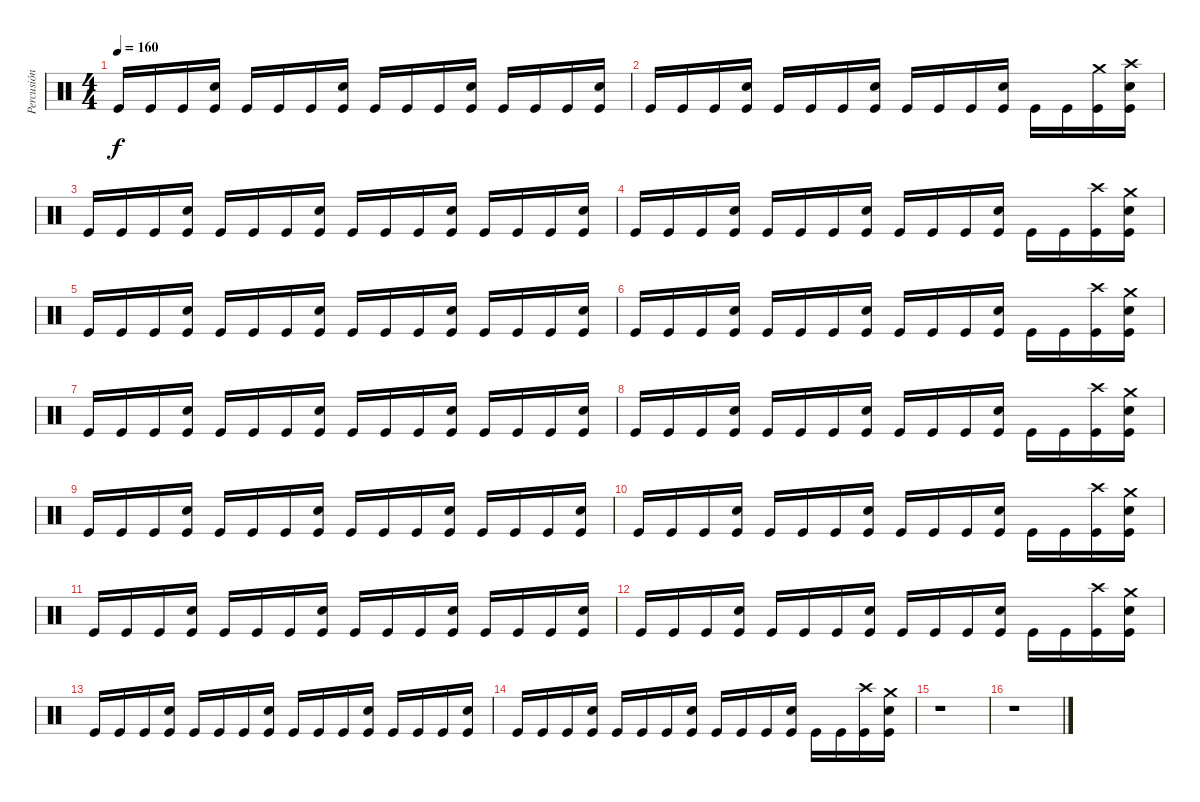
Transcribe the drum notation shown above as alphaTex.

\track ("Percusión" "Percusión") {instrument percussion}
\staff {score}
\articulation defaults
\ts (4 4)
\tempo 160
\clef neutral
\ks c "Kick (hit)".16{dy f} "Kick (hit)".16 "Kick (hit)".16
("Electric Snare (hit)" "Kick (hit)").16 "Kick (hit)".16 "Kick (hit)".16 "Kick (hit)".16 ("Electric Snare (hit)" "Kick (hit)").16 "Kick (hit)".16 "Kick (hit)".16 "Kick (hit)".16 ("Electric Snare (hit)" "Kick (hit)").16 "Kick (hit)".16 "Kick (hit)".16 "Kick (hit)".16 ("Electric Snare (hit)" "Kick (hit)").16 |
"Kick (hit)".16 "Kick (hit)".16 "Kick (hit)".16 ("Electric Snare (hit)" "Kick (hit)").16 "Kick (hit)".16 "Kick (hit)".16 "Kick (hit)".16 ("Electric Snare (hit)" "Kick (hit)").16 "Kick (hit)".16 "Kick (hit)".16 "Kick (hit)".16 ("Electric Snare (hit)" "Kick (hit)").16 "Kick (hit)".16 "Kick (hit)".16 ("Crash medium (hit)" "Kick (hit)").16 ("Crash high (hit)" "Electric Snare (hit)" "Kick (hit)").16 |
"Kick (hit)".16 "Kick (hit)".16 "Kick (hit)".16 ("Electric Snare (hit)" "Kick (hit)").16 "Kick (hit)".16 "Kick (hit)".16 "Kick (hit)".16 ("Electric Snare (hit)" "Kick (hit)").16 "Kick (hit)".16 "Kick (hit)".16 "Kick (hit)".16 ("Electric Snare (hit)" "Kick (hit)").16 "Kick (hit)".16 "Kick (hit)".16 "Kick (hit)".16 ("Electric Snare (hit)" "Kick (hit)").16 |
"Kick (hit)".16 "Kick (hit)".16 "Kick (hit)".16 ("Electric Snare (hit)" "Kick (hit)").16 "Kick (hit)".16 "Kick (hit)".16 "Kick (hit)".16 ("Electric Snare (hit)" "Kick (hit)").16 "Kick (hit)".16 "Kick (hit)".16 "Kick (hit)".16 ("Electric Snare (hit)" "Kick (hit)").16 "Kick (hit)".16 "Kick (hit)".16 ("Crash high (hit)" "Kick (hit)").16 ("Crash medium (hit)" "Electric Snare (hit)" "Kick (hit)").16 |
"Kick (hit)".16 "Kick (hit)".16 "Kick (hit)".16 ("Electric Snare (hit)" "Kick (hit)").16 "Kick (hit)".16 "Kick (hit)".16 "Kick (hit)".16 ("Electric Snare (hit)" "Kick (hit)").16 "Kick (hit)".16 "Kick (hit)".16 "Kick (hit)".16 ("Electric Snare (hit)" "Kick (hit)").16 "Kick (hit)".16 "Kick (hit)".16 "Kick (hit)".16 ("Electric Snare (hit)" "Kick (hit)").16 |
"Kick (hit)".16 "Kick (hit)".16 "Kick (hit)".16 ("Electric Snare (hit)" "Kick (hit)").16 "Kick (hit)".16 "Kick (hit)".16 "Kick (hit)".16 ("Electric Snare (hit)" "Kick (hit)").16 "Kick (hit)".16 "Kick (hit)".16 "Kick (hit)".16 ("Electric Snare (hit)" "Kick (hit)").16 "Kick (hit)".16 "Kick (hit)".16 ("Crash high (hit)" "Kick (hit)").16 ("Crash medium (hit)" "Electric Snare (hit)" "Kick (hit)").16 |
"Kick (hit)".16 "Kick (hit)".16 "Kick (hit)".16 ("Electric Snare (hit)" "Kick (hit)").16 "Kick (hit)".16 "Kick (hit)".16 "Kick (hit)".16 ("Electric Snare (hit)" "Kick (hit)").16 "Kick (hit)".16 "Kick (hit)".16 "Kick (hit)".16 ("Electric Snare (hit)" "Kick (hit)").16 "Kick (hit)".16 "Kick (hit)".16 "Kick (hit)".16 ("Electric Snare (hit)" "Kick (hit)").16 |
"Kick (hit)".16 "Kick (hit)".16 "Kick (hit)".16 ("Electric Snare (hit)" "Kick (hit)").16 "Kick (hit)".16 "Kick (hit)".16 "Kick (hit)".16 ("Electric Snare (hit)" "Kick (hit)").16 "Kick (hit)".16 "Kick (hit)".16 "Kick (hit)".16 ("Electric Snare (hit)" "Kick (hit)").16 "Kick (hit)".16 "Kick (hit)".16 ("Crash high (hit)" "Kick (hit)").16 ("Crash medium (hit)" "Electric Snare (hit)" "Kick (hit)").16 |
"Kick (hit)".16 "Kick (hit)".16 "Kick (hit)".16 ("Electric Snare (hit)" "Kick (hit)").16 "Kick (hit)".16 "Kick (hit)".16 "Kick (hit)".16 ("Electric Snare (hit)" "Kick (hit)").16 "Kick (hit)".16 "Kick (hit)".16 "Kick (hit)".16 ("Electric Snare (hit)" "Kick (hit)").16 "Kick (hit)".16 "Kick (hit)".16 "Kick (hit)".16 ("Electric Snare (hit)" "Kick (hit)").16 |
"Kick (hit)".16 "Kick (hit)".16 "Kick (hit)".16 ("Electric Snare (hit)" "Kick (hit)").16 "Kick (hit)".16 "Kick (hit)".16 "Kick (hit)".16 ("Electric Snare (hit)" "Kick (hit)").16 "Kick (hit)".16 "Kick (hit)".16 "Kick (hit)".16 ("Electric Snare (hit)" "Kick (hit)").16 "Kick (hit)".16 "Kick (hit)".16 ("Crash high (hit)" "Kick (hit)").16 ("Crash medium (hit)" "Electric Snare (hit)" "Kick (hit)").16 |
"Kick (hit)".16 "Kick (hit)".16 "Kick (hit)".16 ("Electric Snare (hit)" "Kick (hit)").16 "Kick (hit)".16 "Kick (hit)".16 "Kick (hit)".16 ("Electric Snare (hit)" "Kick (hit)").16 "Kick (hit)".16 "Kick (hit)".16 "Kick (hit)".16 ("Electric Snare (hit)" "Kick (hit)").16 "Kick (hit)".16 "Kick (hit)".16 "Kick (hit)".16 ("Electric Snare (hit)" "Kick (hit)").16 |
"Kick (hit)".16 "Kick (hit)".16 "Kick (hit)".16 ("Electric Snare (hit)" "Kick (hit)").16 "Kick (hit)".16 "Kick (hit)".16 "Kick (hit)".16 ("Electric Snare (hit)" "Kick (hit)").16 "Kick (hit)".16 "Kick (hit)".16 "Kick (hit)".16 ("Electric Snare (hit)" "Kick (hit)").16 "Kick (hit)".16 "Kick (hit)".16 ("Crash high (hit)" "Kick (hit)").16 ("Crash medium (hit)" "Electric Snare (hit)" "Kick (hit)").16 |
"Kick (hit)".16 "Kick (hit)".16 "Kick (hit)".16 ("Electric Snare (hit)" "Kick (hit)").16 "Kick (hit)".16 "Kick (hit)".16 "Kick (hit)".16 ("Electric Snare (hit)" "Kick (hit)").16 "Kick (hit)".16 "Kick (hit)".16 "Kick (hit)".16 ("Electric Snare (hit)" "Kick (hit)").16 "Kick (hit)".16 "Kick (hit)".16 "Kick (hit)".16 ("Electric Snare (hit)" "Kick (hit)").16 |
"Kick (hit)".16 "Kick (hit)".16 "Kick (hit)".16 ("Electric Snare (hit)" "Kick (hit)").16 "Kick (hit)".16 "Kick (hit)".16 "Kick (hit)".16 ("Electric Snare (hit)" "Kick (hit)").16 "Kick (hit)".16 "Kick (hit)".16 "Kick (hit)".16 ("Electric Snare (hit)" "Kick (hit)").16 "Kick (hit)".16 "Kick (hit)".16 ("Crash high (hit)" "Kick (hit)").16 ("Crash medium (hit)" "Electric Snare (hit)" "Kick (hit)").16 |
r.1 |
r.1
